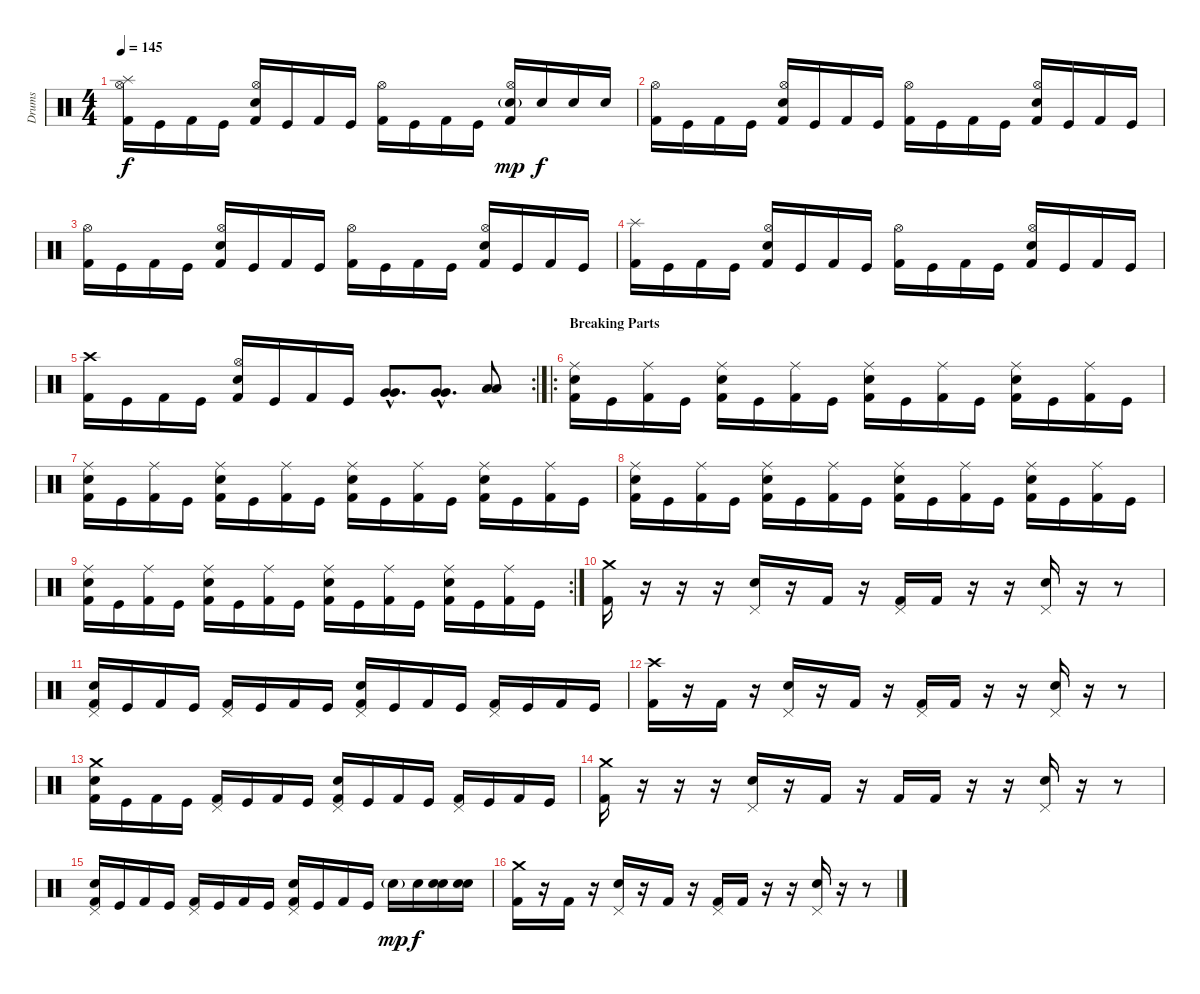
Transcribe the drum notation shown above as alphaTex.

\track ("Drums" "Drums") {instrument percussion}
\staff {score}
\articulation defaults
\ts (4 4)
\tempo 145
\clef neutral
\ks c
("Kick (hit) 2" "Splash (hit)" "Hi-Hat (open)").16{dy f} "Kick (hit)".16 "Kick (hit) 2".16 "Kick (hit)".16 ("Kick (hit) 2" "Electric Snare (hit)" "Hi-Hat (open)").16 "Kick (hit)".16 "Kick (hit) 2".16 "Kick (hit)".16 ("Kick (hit) 2" "Hi-Hat (open)").16 "Kick (hit)".16 "Kick (hit) 2".16 "Kick (hit)".16 ("Kick (hit) 2" "Electric Snare (hit)"{g} "Hi-Hat (open)").16{dy mp} "Electric Snare (hit)".16{dy f} "Electric Snare (hit)".16 "Electric Snare (hit)".16 |
("Kick (hit) 2" "Hi-Hat (open)").16 "Kick (hit)".16 "Kick (hit) 2".16 "Kick (hit)".16 ("Kick (hit) 2" "Electric Snare (hit)" "Hi-Hat (open)").16 "Kick (hit)".16 "Kick (hit) 2".16 "Kick (hit)".16 ("Kick (hit) 2" "Hi-Hat (open)").16 "Kick (hit)".16 "Kick (hit) 2".16 "Kick (hit)".16 ("Kick (hit) 2" "Electric Snare (hit)" "Hi-Hat (open)").16 "Kick (hit)".16 "Kick (hit) 2".16 "Kick (hit)".16 |
("Kick (hit) 2" "Hi-Hat (open)").16 "Kick (hit)".16 "Kick (hit) 2".16 "Kick (hit)".16 ("Kick (hit) 2" "Electric Snare (hit)" "Hi-Hat (open)").16 "Kick (hit)".16 "Kick (hit) 2".16 "Kick (hit)".16 ("Kick (hit) 2" "Hi-Hat (open)").16 "Kick (hit)".16 "Kick (hit) 2".16 "Kick (hit)".16 ("Kick (hit) 2" "Electric Snare (hit)" "Hi-Hat (open)").16 "Kick (hit)".16 "Kick (hit) 2".16 "Kick (hit)".16 |
("Kick (hit) 2" "Splash (hit)").16 "Kick (hit)".16 "Kick (hit) 2".16 "Kick (hit)".16 ("Kick (hit) 2" "Electric Snare (hit)" "Hi-Hat (open)").16 "Kick (hit)".16 "Kick (hit) 2".16 "Kick (hit)".16 ("Kick (hit) 2" "Hi-Hat (open)").16 "Kick (hit)".16 "Kick (hit) 2".16 "Kick (hit)".16 ("Kick (hit) 2" "Electric Snare (hit)" "Hi-Hat (open)").16 "Kick (hit)".16 "Kick (hit) 2".16 "Kick (hit)".16 |
\rc 2
("Kick (hit) 2" "Crash high (hit)").16 "Kick (hit)".16 "Kick (hit) 2".16 "Kick (hit)".16 ("Kick (hit) 2" "Electric Snare (hit)" "Hi-Hat (open)").16 "Kick (hit)".16 "Kick (hit) 2".16 "Kick (hit)".16 ("Very Low Tom (hit)"{hac} "Very Low Tom (hit)"{hac}).8{d} ("Very Low Tom (hit)"{hac} "Very Low Tom (hit)"{hac}).8{d} ("Low Tom (hit)" "Low Tom (hit)").8 |
\ro
\section ("" "Breaking Parts")
("Kick (hit) 2" "Electric Snare (hit)" "Ride (middle)").16 "Kick (hit)".16 ("Kick (hit) 2" "Ride (middle)").16 "Kick (hit)".16 ("Kick (hit) 2" "Electric Snare (hit)" "Ride (middle)").16 "Kick (hit)".16 ("Kick (hit) 2" "Ride (middle)").16 "Kick (hit)".16 ("Kick (hit) 2" "Electric Snare (hit)" "Ride (middle)").16 "Kick (hit)".16 ("Kick (hit) 2" "Ride (middle)").16 "Kick (hit)".16 ("Kick (hit) 2" "Electric Snare (hit)" "Ride (middle)").16 "Kick (hit)".16 ("Kick (hit) 2" "Ride (middle)").16 "Kick (hit)".16 |
("Kick (hit) 2" "Electric Snare (hit)" "Ride (middle)").16 "Kick (hit)".16 ("Kick (hit) 2" "Ride (middle)").16 "Kick (hit)".16 ("Kick (hit) 2" "Electric Snare (hit)" "Ride (middle)").16 "Kick (hit)".16 ("Kick (hit) 2" "Ride (middle)").16 "Kick (hit)".16 ("Kick (hit) 2" "Electric Snare (hit)" "Ride (middle)").16 "Kick (hit)".16 ("Kick (hit) 2" "Ride (middle)").16 "Kick (hit)".16 ("Kick (hit) 2" "Electric Snare (hit)" "Ride (middle)").16 "Kick (hit)".16 ("Kick (hit) 2" "Ride (middle)").16 "Kick (hit)".16 |
("Kick (hit) 2" "Electric Snare (hit)" "Ride (middle)").16 "Kick (hit)".16 ("Kick (hit) 2" "Ride (middle)").16 "Kick (hit)".16 ("Kick (hit) 2" "Electric Snare (hit)" "Ride (middle)").16 "Kick (hit)".16 ("Kick (hit) 2" "Ride (middle)").16 "Kick (hit)".16 ("Kick (hit) 2" "Electric Snare (hit)" "Ride (middle)").16 "Kick (hit)".16 ("Kick (hit) 2" "Ride (middle)").16 "Kick (hit)".16 ("Kick (hit) 2" "Electric Snare (hit)" "Ride (middle)").16 "Kick (hit)".16 ("Kick (hit) 2" "Ride (middle)").16 "Kick (hit)".16 |
\rc 2
("Kick (hit) 2" "Electric Snare (hit)" "Ride (middle)").16 "Kick (hit)".16 ("Kick (hit) 2" "Ride (middle)").16 "Kick (hit)".16 ("Kick (hit) 2" "Electric Snare (hit)" "Ride (middle)").16 "Kick (hit)".16 ("Kick (hit) 2" "Ride (middle)").16 "Kick (hit)".16 ("Kick (hit) 2" "Electric Snare (hit)" "Ride (middle)").16 "Kick (hit)".16 ("Kick (hit) 2" "Ride (middle)").16 "Kick (hit)".16 ("Kick (hit) 2" "Electric Snare (hit)" "Ride (middle)").16 "Kick (hit)".16 ("Kick (hit) 2" "Ride (middle)").16 "Kick (hit)".16 |
("Kick (hit) 2" "Crash medium (hit)").16 r.16 r.16 r.16 ("Electric Snare (hit)" "Pedal Hi-Hat (hit)").16 r.16 "Kick (hit) 2".16 r.16 ("Kick (hit) 2" "Pedal Hi-Hat (hit)").16 "Kick (hit) 2".16 r.16 r.16 ("Electric Snare (hit)" "Pedal Hi-Hat (hit)").16 r.16 r.8 |
("Kick (hit) 2" "Electric Snare (hit)" "Pedal Hi-Hat (hit)").16 "Kick (hit)".16 "Kick (hit) 2".16 "Kick (hit)".16 ("Kick (hit) 2" "Pedal Hi-Hat (hit)").16 "Kick (hit)".16 "Kick (hit) 2".16 "Kick (hit)".16 ("Kick (hit) 2" "Electric Snare (hit)" "Pedal Hi-Hat (hit)").16 "Kick (hit)".16 "Kick (hit) 2".16 "Kick (hit)".16 ("Kick (hit) 2" "Pedal Hi-Hat (hit)").16 "Kick (hit)".16 "Kick (hit) 2".16 "Kick (hit)".16 |
("Kick (hit) 2" "Crash high (hit)").16 r.16 "Kick (hit) 2".16 r.16 ("Electric Snare (hit)" "Pedal Hi-Hat (hit)").16 r.16 "Kick (hit) 2".16 r.16 ("Kick (hit) 2" "Pedal Hi-Hat (hit)").16 "Kick (hit) 2".16 r.16 r.16 ("Electric Snare (hit)" "Pedal Hi-Hat (hit)").16 r.16 r.8 |
("Kick (hit) 2" "Electric Snare (hit)" "Crash medium (hit)").16 "Kick (hit)".16 "Kick (hit) 2".16 "Kick (hit)".16 ("Kick (hit) 2" "Pedal Hi-Hat (hit)").16 "Kick (hit)".16 "Kick (hit) 2".16 "Kick (hit)".16 ("Kick (hit) 2" "Electric Snare (hit)" "Pedal Hi-Hat (hit)").16 "Kick (hit)".16 "Kick (hit) 2".16 "Kick (hit)".16 ("Kick (hit) 2" "Pedal Hi-Hat (hit)").16 "Kick (hit)".16 "Kick (hit) 2".16 "Kick (hit)".16 |
("Kick (hit) 2" "Crash medium (hit)").16 r.16 r.16 r.16 ("Electric Snare (hit)" "Pedal Hi-Hat (hit)").16 r.16 "Kick (hit) 2".16 r.16 "Kick (hit) 2".16 "Kick (hit) 2".16 r.16 r.16 ("Electric Snare (hit)" "Pedal Hi-Hat (hit)").16 r.16 r.8 |
("Kick (hit) 2" "Electric Snare (hit)" "Pedal Hi-Hat (hit)").16 "Kick (hit)".16 "Kick (hit) 2".16 "Kick (hit)".16 ("Kick (hit) 2" "Pedal Hi-Hat (hit)").16 "Kick (hit)".16 "Kick (hit) 2".16 "Kick (hit)".16 ("Kick (hit) 2" "Electric Snare (hit)" "Pedal Hi-Hat (hit)").16 "Kick (hit)".16 "Kick (hit) 2".16 "Kick (hit)".16 "Electric Snare (hit)"{g}.16{dy mp} "Electric Snare (hit)".16{dy f} ("Electric Snare (hit)" "Electric Snare (hit)").16 ("Electric Snare (hit)" "Electric Snare (hit)").16 |
("Kick (hit) 2" "Crash medium (hit)").16 r.16 "Kick (hit) 2".16 r.16 ("Electric Snare (hit)" "Pedal Hi-Hat (hit)").16 r.16 "Kick (hit) 2".16 r.16 ("Kick (hit) 2" "Pedal Hi-Hat (hit)").16 "Kick (hit) 2".16 r.16 r.16 ("Electric Snare (hit)" "Pedal Hi-Hat (hit)").16 r.16 r.8
